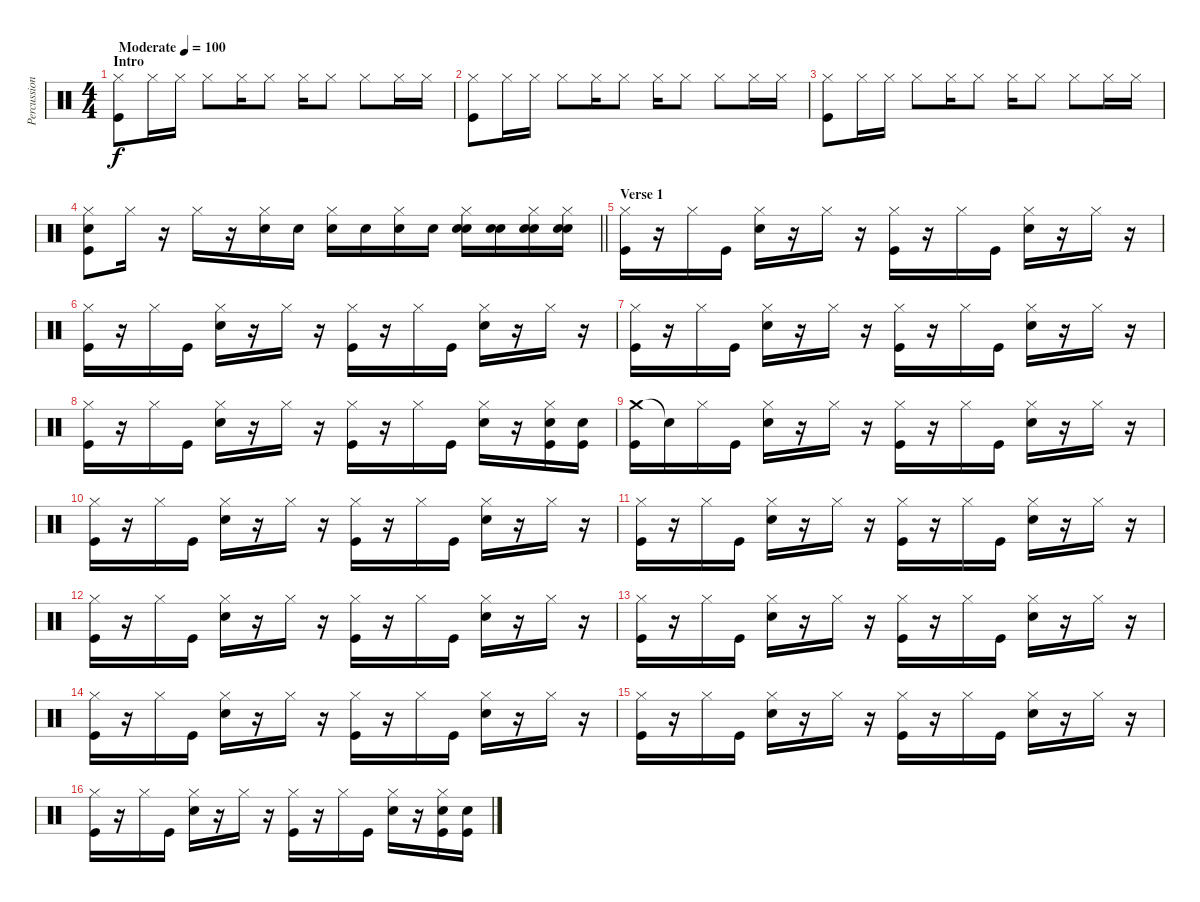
\track ("Percussion (Chad Smith)" "Percussion") {instrument percussion}
\staff {score}
\articulation defaults
\ts (4 4)
\section ("" "Intro")
\tempo (100 "Moderate")
\clef neutral
\ks c
("Hi-Hat (closed)" "Kick (hit)").8{dy f} "Hi-Hat (closed)".16 "Hi-Hat (closed)".16 "Hi-Hat (closed)".8 "Hi-Hat (closed)".16 "Hi-Hat (closed)".8 "Hi-Hat (closed)".16 "Hi-Hat (closed)".8 "Hi-Hat (closed)".8 "Hi-Hat (closed)".16 "Hi-Hat (closed)".16 |
("Hi-Hat (closed)" "Kick (hit)").8 "Hi-Hat (closed)".16 "Hi-Hat (closed)".16 "Hi-Hat (closed)".8 "Hi-Hat (closed)".16 "Hi-Hat (closed)".8 "Hi-Hat (closed)".16 "Hi-Hat (closed)".8 "Hi-Hat (closed)".8 "Hi-Hat (closed)".16 "Hi-Hat (closed)".16 |
("Hi-Hat (closed)" "Kick (hit)").8 "Hi-Hat (closed)".16 "Hi-Hat (closed)".16 "Hi-Hat (closed)".8 "Hi-Hat (closed)".16 "Hi-Hat (closed)".8 "Hi-Hat (closed)".16 "Hi-Hat (closed)".8 "Hi-Hat (closed)".8 "Hi-Hat (closed)".16 "Hi-Hat (closed)".16 |
\barLineRight lightlight
("Hi-Hat (closed)" "Snare (hit) 2" "Kick (hit)").8 "Hi-Hat (closed)".16 r.16 "Hi-Hat (closed)".16 r.16 ("Hi-Hat (closed)" "Snare (hit) 2").16 "Snare (hit) 2".16 ("Hi-Hat (closed)" "Snare (hit) 2").16 "Snare (hit) 2".16 ("Hi-Hat (closed)" "Snare (hit) 2").16 "Snare (hit) 2".16 ("Hi-Hat (closed)" "Electric Snare (hit)" "Snare (hit) 2").16 ("Electric Snare (hit)" "Snare (hit) 2").16 ("Hi-Hat (closed)" "Electric Snare (hit)" "Snare (hit) 2").16 ("Hi-Hat (closed)" "Electric Snare (hit)" "Snare (hit) 2").16 |
\section ("" "Verse 1")
("Hi-Hat (closed)" "Kick (hit)").16 r.16 "Hi-Hat (closed)".16 "Kick (hit)".16 ("Hi-Hat (closed)" "Snare (hit) 2").16 r.16 "Hi-Hat (closed)".16 r.16 ("Hi-Hat (closed)" "Kick (hit)").16 r.16 "Hi-Hat (closed)".16 "Kick (hit)".16 ("Hi-Hat (closed)" "Snare (hit) 2").16 r.16 "Hi-Hat (closed)".16 r.16 |
("Hi-Hat (closed)" "Kick (hit)").16 r.16 "Hi-Hat (closed)".16 "Kick (hit)".16 ("Hi-Hat (closed)" "Electric Snare (hit)").16 r.16 "Hi-Hat (closed)".16 r.16 ("Hi-Hat (closed)" "Kick (hit)").16 r.16 "Hi-Hat (closed)".16 "Kick (hit)".16 ("Hi-Hat (closed)" "Snare (hit) 2").16 r.16 "Hi-Hat (closed)".16 r.16 |
("Hi-Hat (closed)" "Kick (hit)").16 r.16 "Hi-Hat (closed)".16 "Kick (hit)".16 ("Hi-Hat (closed)" "Snare (hit) 2").16 r.16 "Hi-Hat (closed)".16 r.16 ("Hi-Hat (closed)" "Kick (hit)").16 r.16 "Hi-Hat (closed)".16 "Kick (hit)".16 ("Hi-Hat (closed)" "Snare (hit) 2").16 r.16 "Hi-Hat (closed)".16 r.16 |
("Hi-Hat (closed)" "Kick (hit)").16 r.16 "Hi-Hat (closed)".16 "Kick (hit)".16 ("Hi-Hat (closed)" "Snare (hit) 2").16 r.16 "Hi-Hat (closed)".16 r.16 ("Hi-Hat (closed)" "Kick (hit)").16 r.16 "Hi-Hat (closed)".16 "Kick (hit)".16 ("Hi-Hat (closed)" "Snare (hit) 2").16 r.16 ("Hi-Hat (closed)" "Snare (hit) 2" "Kick (hit)").16 ("Snare (hit) 2" "Kick (hit)").16 |
("Crash medium (hit)" "Kick (hit)").16 "Snare (hit)"{t}.16 "Hi-Hat (closed)".16 "Kick (hit)".16 ("Hi-Hat (closed)" "Snare (hit) 2").16 r.16 "Hi-Hat (closed)".16 r.16 ("Hi-Hat (closed)" "Kick (hit)").16 r.16 "Hi-Hat (closed)".16 "Kick (hit)".16 ("Hi-Hat (closed)" "Snare (hit) 2").16 r.16 "Hi-Hat (closed)".16 r.16 |
("Hi-Hat (closed)" "Kick (hit)").16 r.16 "Hi-Hat (closed)".16 "Kick (hit)".16 ("Hi-Hat (closed)" "Snare (hit) 2").16 r.16 "Hi-Hat (closed)".16 r.16 ("Hi-Hat (closed)" "Kick (hit)").16 r.16 "Hi-Hat (closed)".16 "Kick (hit)".16 ("Hi-Hat (closed)" "Snare (hit) 2").16 r.16 "Hi-Hat (closed)".16 r.16 |
("Hi-Hat (closed)" "Kick (hit)").16 r.16 "Hi-Hat (closed)".16 "Kick (hit)".16 ("Hi-Hat (closed)" "Snare (hit) 2").16 r.16 "Hi-Hat (closed)".16 r.16 ("Hi-Hat (closed)" "Kick (hit)").16 r.16 "Hi-Hat (closed)".16 "Kick (hit)".16 ("Hi-Hat (closed)" "Snare (hit) 2").16 r.16 "Hi-Hat (closed)".16 r.16 |
("Hi-Hat (closed)" "Kick (hit)").16 r.16 "Hi-Hat (closed)".16 "Kick (hit)".16 ("Hi-Hat (closed)" "Snare (hit) 2").16 r.16 "Hi-Hat (closed)".16 r.16 ("Hi-Hat (closed)" "Kick (hit)").16 r.16 "Hi-Hat (closed)".16 "Kick (hit)".16 ("Hi-Hat (closed)" "Snare (hit) 2").16 r.16 "Hi-Hat (closed)".16 r.16 |
("Hi-Hat (closed)" "Kick (hit)").16 r.16 "Hi-Hat (closed)".16 "Kick (hit)".16 ("Hi-Hat (closed)" "Snare (hit) 2").16 r.16 "Hi-Hat (closed)".16 r.16 ("Hi-Hat (closed)" "Kick (hit)").16 r.16 "Hi-Hat (closed)".16 "Kick (hit)".16 ("Hi-Hat (closed)" "Snare (hit) 2").16 r.16 "Hi-Hat (closed)".16 r.16 |
("Hi-Hat (closed)" "Kick (hit)").16 r.16 "Hi-Hat (closed)".16 "Kick (hit)".16 ("Hi-Hat (closed)" "Snare (hit) 2").16 r.16 "Hi-Hat (closed)".16 r.16 ("Hi-Hat (closed)" "Kick (hit)").16 r.16 "Hi-Hat (closed)".16 "Kick (hit)".16 ("Hi-Hat (closed)" "Snare (hit) 2").16 r.16 "Hi-Hat (closed)".16 r.16 |
("Hi-Hat (closed)" "Kick (hit)").16 r.16 "Hi-Hat (closed)".16 "Kick (hit)".16 ("Hi-Hat (closed)" "Snare (hit) 2").16 r.16 "Hi-Hat (closed)".16 r.16 ("Hi-Hat (closed)" "Kick (hit)").16 r.16 "Hi-Hat (closed)".16 "Kick (hit)".16 ("Hi-Hat (closed)" "Snare (hit) 2").16 r.16 "Hi-Hat (closed)".16 r.16 |
("Hi-Hat (closed)" "Kick (hit)").16 r.16 "Hi-Hat (closed)".16 "Kick (hit)".16 ("Hi-Hat (closed)" "Snare (hit) 2").16 r.16 "Hi-Hat (closed)".16 r.16 ("Hi-Hat (closed)" "Kick (hit)").16 r.16 "Hi-Hat (closed)".16 "Kick (hit)".16 ("Hi-Hat (closed)" "Snare (hit) 2").16 r.16 ("Hi-Hat (closed)" "Snare (hit) 2" "Kick (hit)").16 ("Snare (hit) 2" "Kick (hit)").16
